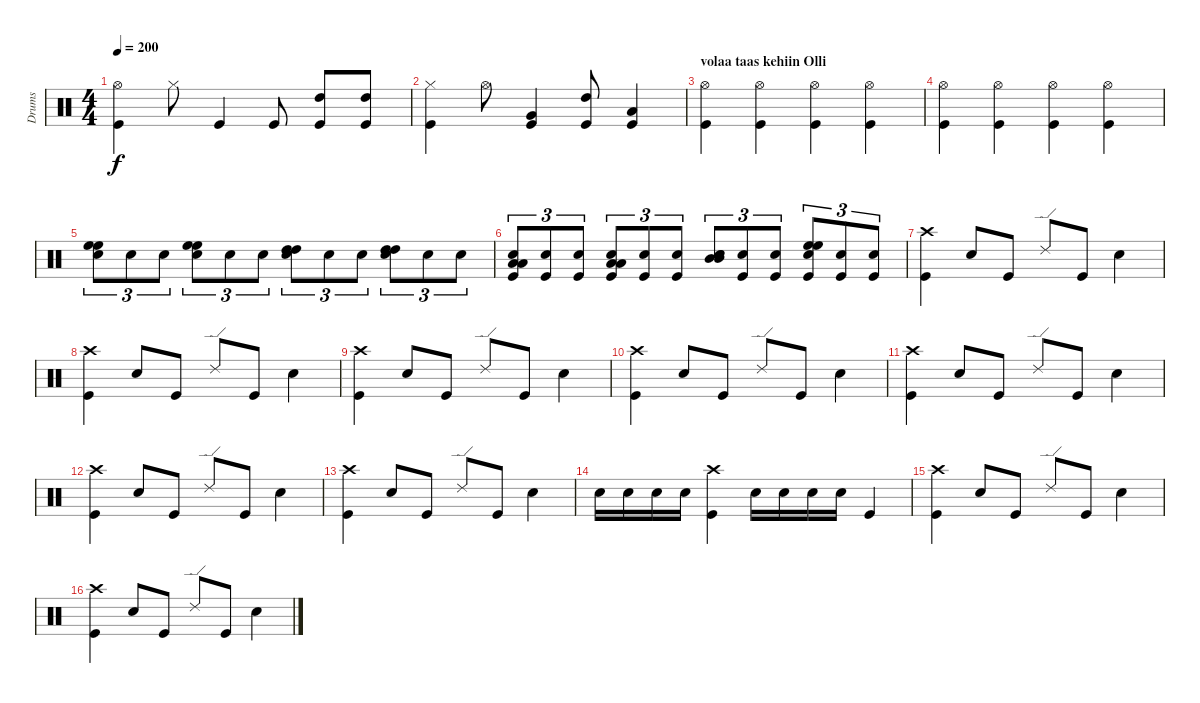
\track ("Drums" "Drums") {instrument percussion}
\staff {score}
\articulation defaults
\ts (4 4)
\tempo 200
\clef neutral
\ks c
("Hi-Hat (open)" "Kick (hit)").4{dy f} "Hi-Hat (closed)".8 "Kick (hit)".4 "Kick (hit)".8 ("High Tom (hit)" "Kick (hit)").8 ("High Tom (hit)" "Kick (hit)").8 |
("Hi-Hat (closed)" "Kick (hit)").4 "Hi-Hat (open)".8 ("Very Low Tom (hit)" "Kick (hit)").4 ("High Tom (hit)" "Kick (hit)").8 ("Low Tom (hit)" "Kick (hit)").4 |
\section ("" "volaa taas kehiin Olli")
("Hi-Hat (open)" "Kick (hit)").4 ("Hi-Hat (open)" "Kick (hit)").4 ("Hi-Hat (open)" "Kick (hit)").4 ("Hi-Hat (open)" "Kick (hit)").4 |
("Hi-Hat (open)" "Kick (hit)").4 ("Hi-Hat (open)" "Kick (hit)").4 ("Hi-Hat (open)" "Kick (hit)").4 ("Hi-Hat (open)" "Kick (hit)").4 |
("Snare (hit) 2" "High Floor Tom (hit)" "High Floor Tom (hit)").8{tu (3 2)} "Snare (hit) 2".8{tu (3 2)} "Snare (hit) 2".8{tu (3 2)} ("Snare (hit) 2" "High Floor Tom (hit)" "High Floor Tom (hit)").8{tu (3 2)} "Snare (hit) 2".8{tu (3 2)} "Snare (hit) 2".8{tu (3 2)} ("Snare (hit) 2" "High Tom (hit)" "High Tom (hit)").8{tu (3 2)} "Snare (hit) 2".8{tu (3 2)} "Snare (hit) 2".8{tu (3 2)} ("Snare (hit) 2" "High Tom (hit)" "High Tom (hit)").8{tu (3 2)} "Snare (hit) 2".8{tu (3 2)} "Snare (hit) 2".8{tu (3 2)} |
("Snare (hit) 2" "Low Tom (hit)" "Low Tom (hit)" "Kick (hit)").8{tu (3 2)} ("Snare (hit) 2" "Kick (hit)").8{tu (3 2)} ("Snare (hit) 2" "Kick (hit)").8{tu (3 2)} ("Snare (hit) 2" "Low Tom (hit)" "Low Tom (hit)" "Kick (hit)").8{tu (3 2)} ("Snare (hit) 2" "Kick (hit)").8{tu (3 2)} ("Snare (hit) 2" "Kick (hit)").8{tu (3 2)} ("Snare (hit) 2" "Mid Tom (hit)" "Mid Tom (hit)" "Snare (hit)").8{tu (3 2)} ("Snare (hit) 2" "Kick (hit)").8{tu (3 2)} ("Snare (hit) 2" "Kick (hit)").8{tu (3 2)} ("Snare (hit) 2" "High Floor Tom (hit)" "High Floor Tom (hit)" "Kick (hit)").8{tu (3 2)} ("Snare (hit) 2" "Kick (hit)").8{tu (3 2)} ("Snare (hit) 2" "Kick (hit)").8{tu (3 2)} |
("Crash high (hit)" "Kick (hit)").4 "Snare (hit) 2".8 "Kick (hit)".8 "Ride (edge) 2".8 "Kick (hit)".8 "Snare (hit) 2".4 |
("Crash high (hit)" "Kick (hit)").4 "Snare (hit) 2".8 "Kick (hit)".8 "Ride (edge) 2".8 "Kick (hit)".8 "Snare (hit) 2".4 |
("Crash high (hit)" "Kick (hit)").4 "Snare (hit) 2".8 "Kick (hit)".8 "Ride (edge) 2".8 "Kick (hit)".8 "Snare (hit) 2".4 |
("Crash high (hit)" "Kick (hit)").4 "Snare (hit) 2".8 "Kick (hit)".8 "Ride (edge) 2".8 "Kick (hit)".8 "Snare (hit) 2".4 |
("Crash high (hit)" "Kick (hit)").4 "Snare (hit) 2".8 "Kick (hit)".8 "Ride (edge) 2".8 "Kick (hit)".8 "Snare (hit) 2".4 |
("Crash high (hit)" "Kick (hit)").4 "Snare (hit) 2".8 "Kick (hit)".8 "Ride (edge) 2".8 "Kick (hit)".8 "Snare (hit) 2".4 |
("Crash high (hit)" "Kick (hit)").4 "Snare (hit) 2".8 "Kick (hit)".8 "Ride (edge) 2".8 "Kick (hit)".8 "Snare (hit) 2".4 |
"Snare (hit) 2".16 "Snare (hit) 2".16 "Snare (hit) 2".16 "Snare (hit) 2".16 ("Crash high (hit)" "Kick (hit)").4 "Snare (hit) 2".16 "Snare (hit) 2".16 "Snare (hit) 2".16 "Snare (hit) 2".16 "Kick (hit)".4 |
("Crash high (hit)" "Kick (hit)").4 "Snare (hit) 2".8 "Kick (hit)".8 "Ride (edge) 2".8 "Kick (hit)".8 "Snare (hit) 2".4 |
("Crash high (hit)" "Kick (hit)").4 "Snare (hit) 2".8 "Kick (hit)".8 "Ride (edge) 2".8 "Kick (hit)".8 "Snare (hit) 2".4
